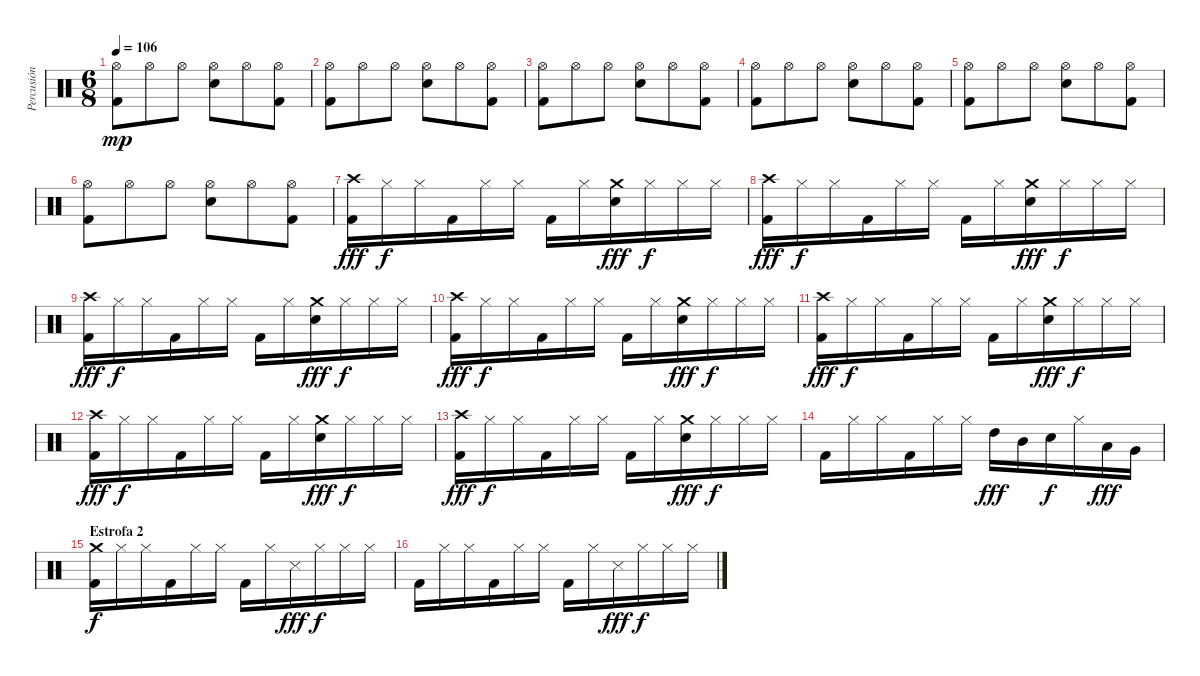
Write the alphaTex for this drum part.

\track ("Percusión" "Percusión") {instrument percussion}
\staff {score}
\articulation defaults
\ts (6 8)
\tempo 106
\clef neutral
\ks c
("Hi-Hat (open)" "Kick (hit) 2").8{dy mp} "Hi-Hat (open)".8 "Hi-Hat (open)".8 ("Hi-Hat (open)" "Snare (hit) 2").8 "Hi-Hat (open)".8 ("Hi-Hat (open)" "Kick (hit) 2").8 |
("Hi-Hat (open)" "Kick (hit) 2").8 "Hi-Hat (open)".8 "Hi-Hat (open)".8 ("Hi-Hat (open)" "Snare (hit) 2").8 "Hi-Hat (open)".8 ("Hi-Hat (open)" "Kick (hit) 2").8 |
("Hi-Hat (open)" "Kick (hit) 2").8 "Hi-Hat (open)".8 "Hi-Hat (open)".8 ("Hi-Hat (open)" "Snare (hit) 2").8 "Hi-Hat (open)".8 ("Hi-Hat (open)" "Kick (hit) 2").8 |
("Hi-Hat (open)" "Kick (hit) 2").8 "Hi-Hat (open)".8 "Hi-Hat (open)".8 ("Hi-Hat (open)" "Snare (hit) 2").8 "Hi-Hat (open)".8 ("Hi-Hat (open)" "Kick (hit) 2").8 |
("Hi-Hat (open)" "Kick (hit) 2").8 "Hi-Hat (open)".8 "Hi-Hat (open)".8 ("Hi-Hat (open)" "Snare (hit) 2").8 "Hi-Hat (open)".8 ("Hi-Hat (open)" "Kick (hit) 2").8 |
("Hi-Hat (open)" "Kick (hit) 2").8 "Hi-Hat (open)".8 "Hi-Hat (open)".8 ("Hi-Hat (open)" "Snare (hit) 2").8 "Hi-Hat (open)".8 ("Hi-Hat (open)" "Kick (hit) 2").8 |
("Kick (hit) 2" "Crash high (hit)").16{dy fff} "Hi-Hat (closed)".16{dy f} "Hi-Hat (closed)".16 "Kick (hit) 2".16 "Hi-Hat (closed)".16 "Hi-Hat (closed)".16 "Kick (hit) 2".16 "Hi-Hat (closed)".16 ("Snare (hit) 2" "Crash medium (hit)").16{dy fff} "Hi-Hat (closed)".16{dy f} "Hi-Hat (closed)".16 "Hi-Hat (closed)".16 |
("Kick (hit) 2" "Crash high (hit)").16{dy fff} "Hi-Hat (closed)".16{dy f} "Hi-Hat (closed)".16 "Kick (hit) 2".16 "Hi-Hat (closed)".16 "Hi-Hat (closed)".16 "Kick (hit) 2".16 "Hi-Hat (closed)".16 ("Snare (hit) 2" "Crash medium (hit)").16{dy fff} "Hi-Hat (closed)".16{dy f} "Hi-Hat (closed)".16 "Hi-Hat (closed)".16 |
("Kick (hit) 2" "Crash high (hit)").16{dy fff} "Hi-Hat (closed)".16{dy f} "Hi-Hat (closed)".16 "Kick (hit) 2".16 "Hi-Hat (closed)".16 "Hi-Hat (closed)".16 "Kick (hit) 2".16 "Hi-Hat (closed)".16 ("Snare (hit) 2" "Crash medium (hit)").16{dy fff} "Hi-Hat (closed)".16{dy f} "Hi-Hat (closed)".16 "Hi-Hat (closed)".16 |
("Kick (hit) 2" "Crash high (hit)").16{dy fff} "Hi-Hat (closed)".16{dy f} "Hi-Hat (closed)".16 "Kick (hit) 2".16 "Hi-Hat (closed)".16 "Hi-Hat (closed)".16 "Kick (hit) 2".16 "Hi-Hat (closed)".16 ("Snare (hit) 2" "Crash medium (hit)").16{dy fff} "Hi-Hat (closed)".16{dy f} "Hi-Hat (closed)".16 "Hi-Hat (closed)".16 |
("Kick (hit) 2" "Crash high (hit)").16{dy fff} "Hi-Hat (closed)".16{dy f} "Hi-Hat (closed)".16 "Kick (hit) 2".16 "Hi-Hat (closed)".16 "Hi-Hat (closed)".16 "Kick (hit) 2".16 "Hi-Hat (closed)".16 ("Snare (hit) 2" "Crash medium (hit)").16{dy fff} "Hi-Hat (closed)".16{dy f} "Hi-Hat (closed)".16 "Hi-Hat (closed)".16 |
("Kick (hit) 2" "Crash high (hit)").16{dy fff} "Hi-Hat (closed)".16{dy f} "Hi-Hat (closed)".16 "Kick (hit) 2".16 "Hi-Hat (closed)".16 "Hi-Hat (closed)".16 "Kick (hit) 2".16 "Hi-Hat (closed)".16 ("Snare (hit) 2" "Crash medium (hit)").16{dy fff} "Hi-Hat (closed)".16{dy f} "Hi-Hat (closed)".16 "Hi-Hat (closed)".16 |
("Kick (hit) 2" "Crash high (hit)").16{dy fff} "Hi-Hat (closed)".16{dy f} "Hi-Hat (closed)".16 "Kick (hit) 2".16 "Hi-Hat (closed)".16 "Hi-Hat (closed)".16 "Kick (hit) 2".16 "Hi-Hat (closed)".16 ("Snare (hit) 2" "Crash medium (hit)").16{dy fff} "Hi-Hat (closed)".16{dy f} "Hi-Hat (closed)".16 "Hi-Hat (closed)".16 |
"Kick (hit) 2".16 "Hi-Hat (closed)".16 "Hi-Hat (closed)".16 "Kick (hit) 2".16 "Hi-Hat (closed)".16 "Hi-Hat (closed)".16 "High Tom (hit)".16{dy fff} "Mid Tom (hit)".16 "Snare (hit) 2".16{dy f} "Hi-Hat (closed)".16 "Low Tom (hit)".16{dy fff} "Very Low Tom (hit)".16 |
\section ("" "Estrofa 2")
("Kick (hit) 2" "Crash medium (hit)").16{dy f} "Hi-Hat (closed)".16 "Hi-Hat (closed)".16 "Kick (hit) 2".16 "Hi-Hat (closed)".16 "Hi-Hat (closed)".16 "Kick (hit) 2".16 "Hi-Hat (closed)".16 "Snare (side stick) 3".16{dy fff} "Hi-Hat (closed)".16{dy f} "Hi-Hat (closed)".16 "Hi-Hat (closed)".16 |
"Kick (hit) 2".16 "Hi-Hat (closed)".16 "Hi-Hat (closed)".16 "Kick (hit) 2".16 "Hi-Hat (closed)".16 "Hi-Hat (closed)".16 "Kick (hit) 2".16 "Hi-Hat (closed)".16 "Snare (side stick) 3".16{dy fff} "Hi-Hat (closed)".16{dy f} "Hi-Hat (closed)".16 "Hi-Hat (closed)".16
